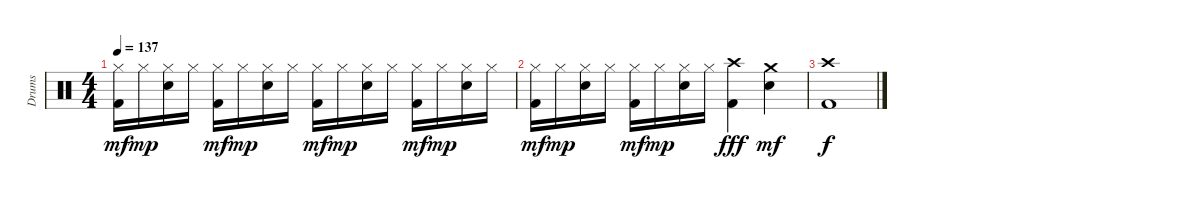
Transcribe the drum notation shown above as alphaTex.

\track ("Drums" "Drums") {instrument percussion}
\staff {score}
\articulation defaults
\ts (4 4)
\tempo 137
\clef neutral
\ks c
("Hi-Hat (closed)" "Kick (hit) 2").16{dy mf} "Hi-Hat (closed)".16{dy mp} ("Hi-Hat (closed)" "Snare (hit) 2").16 "Hi-Hat (closed)".16 ("Hi-Hat (closed)" "Kick (hit) 2").16{dy mf} "Hi-Hat (closed)".16{dy mp} ("Hi-Hat (closed)" "Snare (hit) 2").16 "Hi-Hat (closed)".16 ("Hi-Hat (closed)" "Kick (hit) 2").16{dy mf} "Hi-Hat (closed)".16{dy mp} ("Hi-Hat (closed)" "Snare (hit) 2").16 "Hi-Hat (closed)".16 ("Hi-Hat (closed)" "Kick (hit) 2").16{dy mf} "Hi-Hat (closed)".16{dy mp} ("Hi-Hat (closed)" "Snare (hit) 2").16 "Hi-Hat (closed)".16 |
("Hi-Hat (closed)" "Kick (hit) 2").16{dy mf} "Hi-Hat (closed)".16{dy mp} ("Hi-Hat (closed)" "Snare (hit) 2").16 "Hi-Hat (closed)".16 ("Hi-Hat (closed)" "Kick (hit) 2").16{dy mf} "Hi-Hat (closed)".16{dy mp} ("Hi-Hat (closed)" "Snare (hit) 2").16 "Hi-Hat (closed)".16 ("Crash high (hit)" "Kick (hit) 2").4{dy fff} ("Crash medium (hit)" "Snare (hit) 2").4{dy mf} |
("Crash high (hit)" "Kick (hit) 2").1{dy f}
